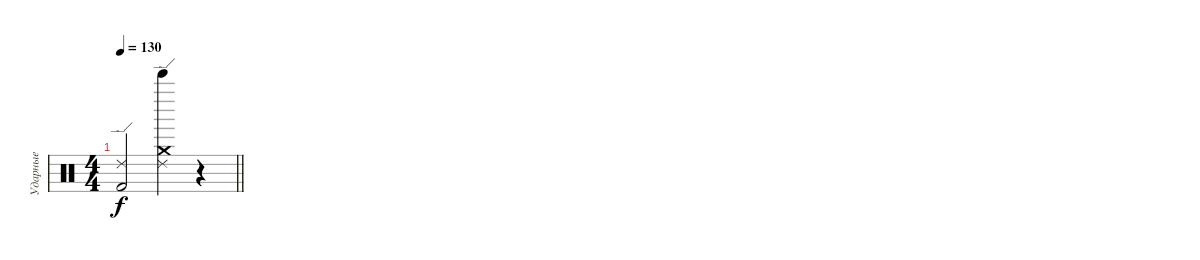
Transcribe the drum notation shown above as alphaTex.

\track ("Ударные" "Ударные") {instrument percussion}
\staff {score}
\articulation defaults
\ts (4 4)
\tempo 130
\clef neutral
\barLineRight lightlight
\ks c
("Kick (hit) 2" "Ride (edge) 2").2{dy f} ("Crash medium (hit)" "Ride (edge) 2" "Bell Tree (hit)").4 r.4
